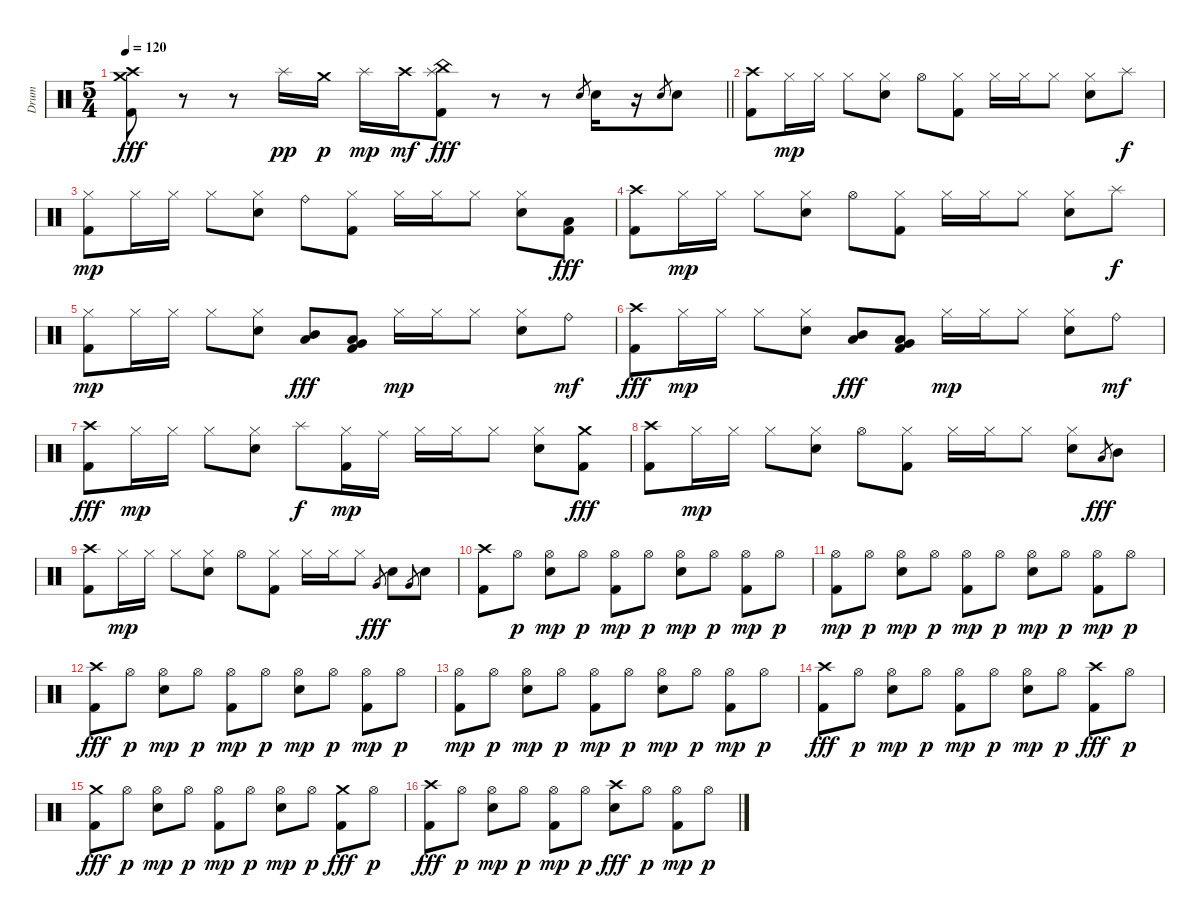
\track ("Drum" "Drum") {instrument percussion}
\staff {score}
\articulation defaults
\ts (5 4)
\tempo 120
\clef neutral
\barLineRight lightlight
\ks c
("Kick (hit) 2" "Crash medium (hit)" "Crash high (hit)").8{dy fff} r.8 r.8 "Splash (hit)".16{dy pp} "Crash medium (hit)".16{dy p} "Splash (hit)".16{dy mp} "Crash high (hit)".16{dy mf} ("Kick (hit) 2" "Splash (hit)" "China (hit)").8{dy fff} r.8 r.8 "Electric Snare (hit)".8{gr} "Electric Snare (hit)".16 r.16 "Electric Snare (hit)".8{gr} "Electric Snare (hit)".8 |
("Kick (hit) 2" "Crash high (hit)").8 "Hi-Hat (closed)".16{dy mp} "Hi-Hat (closed)".16 "Hi-Hat (closed)".8 ("Electric Snare (hit)" "Hi-Hat (closed)").8 "Hi-Hat (open)".8 ("Kick (hit) 2" "Hi-Hat (closed)").8 "Hi-Hat (closed)".16 "Hi-Hat (closed)".16 "Hi-Hat (closed)".8 ("Electric Snare (hit)" "Hi-Hat (closed)").8 "Splash (hit)".8{dy f} |
("Kick (hit) 2" "Hi-Hat (closed)").8{dy mp} "Hi-Hat (closed)".16 "Hi-Hat (closed)".16 "Hi-Hat (closed)".8 ("Electric Snare (hit)" "Hi-Hat (closed)").8 "Ride (bell)".8 ("Kick (hit) 2" "Hi-Hat (closed)").8 "Hi-Hat (closed)".16 "Hi-Hat (closed)".16 "Hi-Hat (closed)".8 ("Electric Snare (hit)" "Hi-Hat (closed)").8 ("Kick (hit) 2" "Low Tom (hit)").8{dy fff} |
("Kick (hit) 2" "Crash high (hit)").8 "Hi-Hat (closed)".16{dy mp} "Hi-Hat (closed)".16 "Hi-Hat (closed)".8 ("Electric Snare (hit)" "Hi-Hat (closed)").8 "Hi-Hat (open)".8 ("Kick (hit) 2" "Hi-Hat (closed)").8 "Hi-Hat (closed)".16 "Hi-Hat (closed)".16 "Hi-Hat (closed)".8 ("Electric Snare (hit)" "Hi-Hat (closed)").8 "Splash (hit)".8{dy f} |
("Kick (hit) 2" "Hi-Hat (closed)").8{dy mp} "Hi-Hat (closed)".16 "Hi-Hat (closed)".16 "Hi-Hat (closed)".8 ("Electric Snare (hit)" "Hi-Hat (closed)").8 ("Low Tom (hit)" "Mid Tom (hit)").8{dy fff} ("Kick (hit) 2" "Very Low Tom (hit)" "Low Tom (hit)").8 "Hi-Hat (closed)".16{dy mp} "Hi-Hat (closed)".16 "Hi-Hat (closed)".8 ("Electric Snare (hit)" "Hi-Hat (closed)").8 "Ride (bell)".8{dy mf} |
("Kick (hit) 2" "Crash high (hit)").8{dy fff} "Hi-Hat (closed)".16{dy mp} "Hi-Hat (closed)".16 "Hi-Hat (closed)".8 ("Electric Snare (hit)" "Hi-Hat (closed)").8 ("Low Tom (hit)" "Mid Tom (hit)").8{dy fff} ("Kick (hit) 2" "Very Low Tom (hit)" "Low Tom (hit)").8 "Hi-Hat (closed)".16{dy mp} "Hi-Hat (closed)".16 "Hi-Hat (closed)".8 ("Electric Snare (hit)" "Hi-Hat (closed)").8 "Ride (bell)".8{dy mf} |
("Kick (hit) 2" "Crash high (hit)").8{dy fff} "Hi-Hat (closed)".16{dy mp} "Hi-Hat (closed)".16 "Hi-Hat (closed)".8 ("Electric Snare (hit)" "Hi-Hat (closed)").8 "Splash (hit)".8{dy f} ("Kick (hit) 2" "Hi-Hat (closed)").16{dy mp} "Ride (middle)".16 "Hi-Hat (closed)".16 "Hi-Hat (closed)".16 "Hi-Hat (closed)".8 ("Electric Snare (hit)" "Hi-Hat (closed)").8 ("Kick (hit) 2" "Crash medium (hit)").8{dy fff} |
("Kick (hit) 2" "Crash high (hit)").8 "Hi-Hat (closed)".16{dy mp} "Hi-Hat (closed)".16 "Hi-Hat (closed)".8 ("Electric Snare (hit)" "Hi-Hat (closed)").8 "Hi-Hat (open)".8 ("Kick (hit) 2" "Hi-Hat (closed)").8 "Hi-Hat (closed)".16 "Hi-Hat (closed)".16 "Hi-Hat (closed)".8 ("Electric Snare (hit)" "Hi-Hat (closed)").8 "Low Tom (hit)".8{gr dy fff} "Mid Tom (hit)".8 |
("Kick (hit) 2" "Crash high (hit)").8 "Hi-Hat (closed)".16{dy mp} "Hi-Hat (closed)".16 "Hi-Hat (closed)".8 ("Electric Snare (hit)" "Hi-Hat (closed)").8 "Hi-Hat (open)".8 ("Kick (hit) 2" "Hi-Hat (closed)").8 "Hi-Hat (closed)".16 "Hi-Hat (closed)".16 "Hi-Hat (closed)".8 "Very Low Tom (hit)".8{gr dy fff} "Electric Snare (hit)".8 "Very Low Tom (hit)".8{gr} "Electric Snare (hit)".8 |
("Kick (hit) 2" "Crash high (hit)").8 "Hi-Hat (open)".8{dy p} ("Electric Snare (hit)" "Hi-Hat (open)").8{dy mp} "Hi-Hat (open)".8{dy p} ("Kick (hit) 2" "Hi-Hat (open)").8{dy mp} "Hi-Hat (open)".8{dy p} ("Electric Snare (hit)" "Hi-Hat (open)").8{dy mp} "Hi-Hat (open)".8{dy p} ("Kick (hit) 2" "Hi-Hat (open)").8{dy mp} "Hi-Hat (open)".8{dy p} |
("Kick (hit) 2" "Hi-Hat (open)").8{dy mp} "Hi-Hat (open)".8{dy p} ("Electric Snare (hit)" "Hi-Hat (open)").8{dy mp} "Hi-Hat (open)".8{dy p} ("Kick (hit) 2" "Hi-Hat (open)").8{dy mp} "Hi-Hat (open)".8{dy p} ("Electric Snare (hit)" "Hi-Hat (open)").8{dy mp} "Hi-Hat (open)".8{dy p} ("Kick (hit) 2" "Hi-Hat (open)").8{dy mp} "Hi-Hat (open)".8{dy p} |
("Kick (hit) 2" "Crash high (hit)").8{dy fff} "Hi-Hat (open)".8{dy p} ("Electric Snare (hit)" "Hi-Hat (open)").8{dy mp} "Hi-Hat (open)".8{dy p} ("Kick (hit) 2" "Hi-Hat (open)").8{dy mp} "Hi-Hat (open)".8{dy p} ("Electric Snare (hit)" "Hi-Hat (open)").8{dy mp} "Hi-Hat (open)".8{dy p} ("Kick (hit) 2" "Hi-Hat (open)").8{dy mp} "Hi-Hat (open)".8{dy p} |
("Kick (hit) 2" "Hi-Hat (open)").8{dy mp} "Hi-Hat (open)".8{dy p} ("Electric Snare (hit)" "Hi-Hat (open)").8{dy mp} "Hi-Hat (open)".8{dy p} ("Kick (hit) 2" "Hi-Hat (open)").8{dy mp} "Hi-Hat (open)".8{dy p} ("Electric Snare (hit)" "Hi-Hat (open)").8{dy mp} "Hi-Hat (open)".8{dy p} ("Kick (hit) 2" "Hi-Hat (open)").8{dy mp} "Hi-Hat (open)".8{dy p} |
("Kick (hit) 2" "Crash high (hit)").8{dy fff} "Hi-Hat (open)".8{dy p} ("Electric Snare (hit)" "Hi-Hat (open)").8{dy mp} "Hi-Hat (open)".8{dy p} ("Kick (hit) 2" "Hi-Hat (open)").8{dy mp} "Hi-Hat (open)".8{dy p} ("Electric Snare (hit)" "Hi-Hat (open)").8{dy mp} "Hi-Hat (open)".8{dy p} ("Kick (hit) 2" "Crash high (hit)").8{dy fff} "Hi-Hat (open)".8{dy p} |
("Kick (hit) 2" "Crash medium (hit)").8{dy fff} "Hi-Hat (open)".8{dy p} ("Electric Snare (hit)" "Hi-Hat (open)").8{dy mp} "Hi-Hat (open)".8{dy p} ("Kick (hit) 2" "Hi-Hat (open)").8{dy mp} "Hi-Hat (open)".8{dy p} ("Electric Snare (hit)" "Hi-Hat (open)").8{dy mp} "Hi-Hat (open)".8{dy p} ("Kick (hit) 2" "Crash medium (hit)").8{dy fff} "Hi-Hat (open)".8{dy p} |
("Kick (hit) 2" "Crash high (hit)").8{dy fff} "Hi-Hat (open)".8{dy p} ("Electric Snare (hit)" "Hi-Hat (open)").8{dy mp} "Hi-Hat (open)".8{dy p} ("Kick (hit) 2" "Hi-Hat (open)").8{dy mp} "Hi-Hat (open)".8{dy p} ("Electric Snare (hit)" "Crash high (hit)").8{dy fff} "Hi-Hat (open)".8{dy p} ("Kick (hit) 2" "Hi-Hat (open)").8{dy mp} "Hi-Hat (open)".8{dy p}
